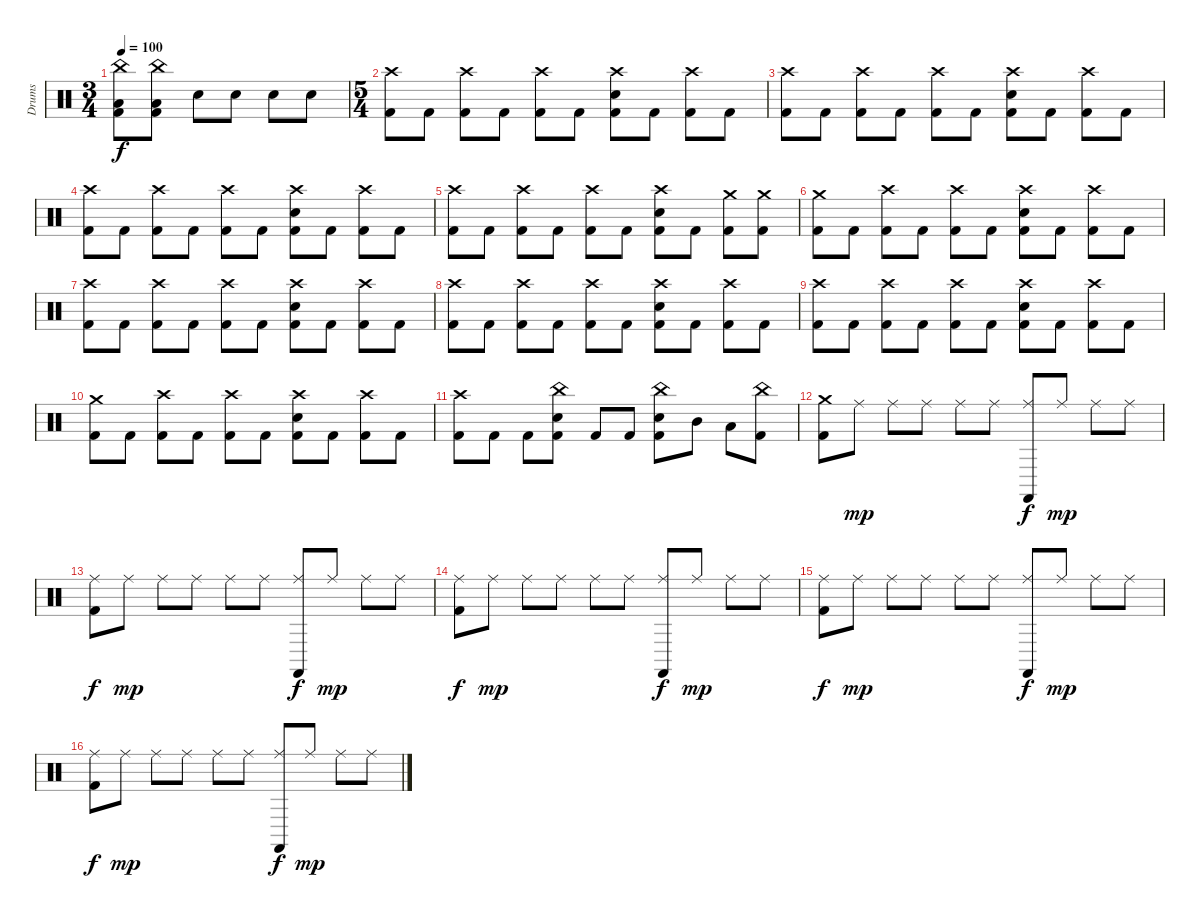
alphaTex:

\track ("Drums" "Drums") {instrument percussion}
\staff {score}
\articulation defaults
\ts (3 4)
\tempo 100
\clef neutral
\ks c
("China (hit)" "Low Tom (hit)" "Kick (hit) 2").8{dy f} ("China (hit)" "Low Tom (hit)" "Kick (hit) 2").8 "Snare (hit) 2".8 "Snare (hit) 2".8 "Snare (hit) 2".8 "Snare (hit) 2".8 |
\ts (5 4)
("Crash high (hit)" "Kick (hit) 2").8 "Kick (hit) 2".8 ("Crash high (hit)" "Kick (hit) 2").8 "Kick (hit) 2".8 ("Crash high (hit)" "Kick (hit) 2").8 "Kick (hit) 2".8 ("Crash high (hit)" "Snare (hit) 2" "Kick (hit) 2").8 "Kick (hit) 2".8 ("Crash high (hit)" "Kick (hit) 2").8 "Kick (hit) 2".8 |
("Crash high (hit)" "Kick (hit) 2").8 "Kick (hit) 2".8 ("Crash high (hit)" "Kick (hit) 2").8 "Kick (hit) 2".8 ("Crash high (hit)" "Kick (hit) 2").8 "Kick (hit) 2".8 ("Crash high (hit)" "Snare (hit) 2" "Kick (hit) 2").8 "Kick (hit) 2".8 ("Crash high (hit)" "Kick (hit) 2").8 "Kick (hit) 2".8 |
("Crash high (hit)" "Kick (hit) 2").8 "Kick (hit) 2".8 ("Crash high (hit)" "Kick (hit) 2").8 "Kick (hit) 2".8 ("Crash high (hit)" "Kick (hit) 2").8 "Kick (hit) 2".8 ("Crash high (hit)" "Snare (hit) 2" "Kick (hit) 2").8 "Kick (hit) 2".8 ("Crash high (hit)" "Kick (hit) 2").8 "Kick (hit) 2".8 |
("Crash high (hit)" "Kick (hit) 2").8 "Kick (hit) 2".8 ("Crash high (hit)" "Kick (hit) 2").8 "Kick (hit) 2".8 ("Crash high (hit)" "Kick (hit) 2").8 "Kick (hit) 2".8 ("Crash high (hit)" "Snare (hit) 2" "Kick (hit) 2").8 "Kick (hit) 2".8 ("Crash medium (hit)" "Kick (hit) 2").8 ("Crash medium (hit)" "Kick (hit) 2").8 |
("Crash medium (hit)" "Kick (hit) 2").8 "Kick (hit) 2".8 ("Crash high (hit)" "Kick (hit) 2").8 "Kick (hit) 2".8 ("Crash high (hit)" "Kick (hit) 2").8 "Kick (hit) 2".8 ("Crash high (hit)" "Snare (hit) 2" "Kick (hit) 2").8 "Kick (hit) 2".8 ("Crash high (hit)" "Kick (hit) 2").8 "Kick (hit) 2".8 |
("Crash high (hit)" "Kick (hit) 2").8 "Kick (hit) 2".8 ("Crash high (hit)" "Kick (hit) 2").8 "Kick (hit) 2".8 ("Crash high (hit)" "Kick (hit) 2").8 "Kick (hit) 2".8 ("Crash high (hit)" "Snare (hit) 2" "Kick (hit) 2").8 "Kick (hit) 2".8 ("Crash high (hit)" "Kick (hit) 2").8 "Kick (hit) 2".8 |
("Crash high (hit)" "Kick (hit) 2").8 "Kick (hit) 2".8 ("Crash high (hit)" "Kick (hit) 2").8 "Kick (hit) 2".8 ("Crash high (hit)" "Kick (hit) 2").8 "Kick (hit) 2".8 ("Crash high (hit)" "Snare (hit) 2" "Kick (hit) 2").8 "Kick (hit) 2".8 ("Crash high (hit)" "Kick (hit) 2").8 "Kick (hit) 2".8 |
("Crash high (hit)" "Kick (hit) 2").8 "Kick (hit) 2".8 ("Crash high (hit)" "Kick (hit) 2").8 "Kick (hit) 2".8 ("Crash high (hit)" "Kick (hit) 2").8 "Kick (hit) 2".8 ("Crash high (hit)" "Snare (hit) 2" "Kick (hit) 2").8 "Kick (hit) 2".8 ("Crash high (hit)" "Kick (hit) 2").8 "Kick (hit) 2".8 |
("Crash medium (hit)" "Kick (hit) 2").8 "Kick (hit) 2".8 ("Crash high (hit)" "Kick (hit) 2").8 "Kick (hit) 2".8 ("Crash high (hit)" "Kick (hit) 2").8 "Kick (hit) 2".8 ("Crash high (hit)" "Snare (hit) 2" "Kick (hit) 2").8 "Kick (hit) 2".8 ("Crash high (hit)" "Kick (hit) 2").8 "Kick (hit) 2".8 |
("Crash high (hit)" "Kick (hit) 2").8 "Kick (hit) 2".8 "Kick (hit) 2".8 ("China (hit)" "Snare (hit) 2" "Kick (hit) 2").8 "Kick (hit) 2".8 "Kick (hit) 2".8 ("China (hit)" "Snare (hit) 2" "Kick (hit) 2").8 "Mid Tom (hit)".8 "Low Tom (hit)".8 ("China (hit)" "Kick (hit) 2").8 |
("Crash medium (hit)" "Kick (hit) 2").8 "Ride (middle)".8{dy mp} "Ride (middle)".8 "Ride (middle)".8 "Ride (middle)".8 "Ride (middle)".8 ("Ride (middle)" "Castanets (hit)").8{dy f} "Ride (middle)".8{dy mp} "Ride (middle)".8 "Ride (middle)".8 |
("Ride (middle)" "Kick (hit) 2").8{dy f} "Ride (middle)".8{dy mp} "Ride (middle)".8 "Ride (middle)".8 "Ride (middle)".8 "Ride (middle)".8 ("Ride (middle)" "Castanets (hit)").8{dy f} "Ride (middle)".8{dy mp} "Ride (middle)".8 "Ride (middle)".8 |
("Ride (middle)" "Kick (hit) 2").8{dy f} "Ride (middle)".8{dy mp} "Ride (middle)".8 "Ride (middle)".8 "Ride (middle)".8 "Ride (middle)".8 ("Ride (middle)" "Castanets (hit)").8{dy f} "Ride (middle)".8{dy mp} "Ride (middle)".8 "Ride (middle)".8 |
("Ride (middle)" "Kick (hit) 2").8{dy f} "Ride (middle)".8{dy mp} "Ride (middle)".8 "Ride (middle)".8 "Ride (middle)".8 "Ride (middle)".8 ("Ride (middle)" "Castanets (hit)").8{dy f} "Ride (middle)".8{dy mp} "Ride (middle)".8 "Ride (middle)".8 |
("Ride (middle)" "Kick (hit) 2").8{dy f} "Ride (middle)".8{dy mp} "Ride (middle)".8 "Ride (middle)".8 "Ride (middle)".8 "Ride (middle)".8 ("Ride (middle)" "Castanets (hit)").8{dy f} "Ride (middle)".8{dy mp} "Ride (middle)".8 "Ride (middle)".8
